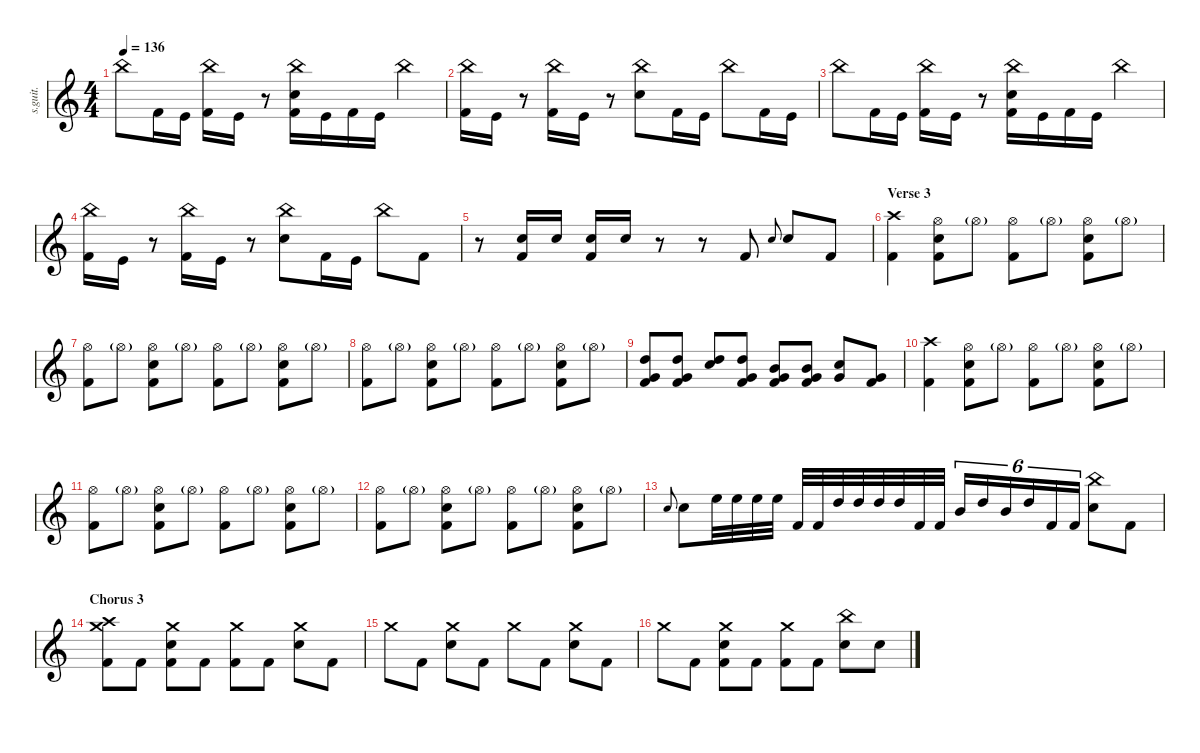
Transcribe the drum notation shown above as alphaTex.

\defaultSystemsLayout 4
\hideDynamics
\bracketExtendMode nobrackets
\track ("Joey Jordison" "s.guit.") {instrument percussion}
\staff {score}
\articulation defaults
\ts (4 4)
\tempo 136
\clef g2
\ks c "China (hit)".8{lyrics (0 "") lyrics (1 "") lyrics (2 "") lyrics (3 "") lyrics (4 "") dy fff} "Kick (hit) 2".16{lyrics (0 "") lyrics (1 "") lyrics (2 "") lyrics (3 "") lyrics (4 "")} "Kick (hit)".16{lyrics (0 "") lyrics (1 "") lyrics (2 "") lyrics (3 "") lyrics (4 "")}
("Kick (hit) 2" "China (hit)").16{lyrics (0 "") lyrics (1 "") lyrics (2 "") lyrics (3 "") lyrics (4 "")} "Kick (hit)".16{lyrics (0 "") lyrics (1 "") lyrics (2 "") lyrics (3 "") lyrics (4 "")} r.8 ("Snare (hit) 2" "Kick (hit) 2" "China (hit)").16{lyrics (0 "") lyrics (1 "") lyrics (2 "") lyrics (3 "") lyrics (4 "")} "Kick (hit)".16{lyrics (0 "") lyrics (1 "") lyrics (2 "") lyrics (3 "") lyrics (4 "")} "Kick (hit) 2".16{lyrics (0 "") lyrics (1 "") lyrics (2 "") lyrics (3 "") lyrics (4 "")} "Kick (hit)".16{lyrics (0 "") lyrics (1 "") lyrics (2 "") lyrics (3 "") lyrics (4 "")} "China (hit)".4{lyrics (0 "") lyrics (1 "") lyrics (2 "") lyrics (3 "") lyrics (4 "")} |
("Kick (hit) 2" "China (hit)").16{lyrics (0 "") lyrics (1 "") lyrics (2 "") lyrics (3 "") lyrics (4 "")} "Kick (hit)".16{lyrics (0 "") lyrics (1 "") lyrics (2 "") lyrics (3 "") lyrics (4 "")} r.8 ("Kick (hit) 2" "China (hit)").16{lyrics (0 "") lyrics (1 "") lyrics (2 "") lyrics (3 "") lyrics (4 "")} "Kick (hit)".16{lyrics (0 "") lyrics (1 "") lyrics (2 "") lyrics (3 "") lyrics (4 "")} r.8 ("Snare (hit) 2" "China (hit)").8{lyrics (0 "") lyrics (1 "") lyrics (2 "") lyrics (3 "") lyrics (4 "")} "Kick (hit) 2".16{lyrics (0 "") lyrics (1 "") lyrics (2 "") lyrics (3 "") lyrics (4 "")} "Kick (hit)".16{lyrics (0 "") lyrics (1 "") lyrics (2 "") lyrics (3 "") lyrics (4 "")} "China (hit)".8{lyrics (0 "") lyrics (1 "") lyrics (2 "") lyrics (3 "") lyrics (4 "")} "Kick (hit) 2".16{lyrics (0 "") lyrics (1 "") lyrics (2 "") lyrics (3 "") lyrics (4 "")} "Kick (hit)".16{lyrics (0 "") lyrics (1 "") lyrics (2 "") lyrics (3 "") lyrics (4 "")} |
"China (hit)".8{lyrics (0 "") lyrics (1 "") lyrics (2 "") lyrics (3 "") lyrics (4 "")} "Kick (hit) 2".16{lyrics (0 "") lyrics (1 "") lyrics (2 "") lyrics (3 "") lyrics (4 "")} "Kick (hit)".16{lyrics (0 "") lyrics (1 "") lyrics (2 "") lyrics (3 "") lyrics (4 "")} ("Kick (hit) 2" "China (hit)").16{lyrics (0 "") lyrics (1 "") lyrics (2 "") lyrics (3 "") lyrics (4 "")} "Kick (hit)".16{lyrics (0 "") lyrics (1 "") lyrics (2 "") lyrics (3 "") lyrics (4 "")} r.8 ("Snare (hit) 2" "Kick (hit) 2" "China (hit)").16{lyrics (0 "") lyrics (1 "") lyrics (2 "") lyrics (3 "") lyrics (4 "")} "Kick (hit)".16{lyrics (0 "") lyrics (1 "") lyrics (2 "") lyrics (3 "") lyrics (4 "")} "Kick (hit) 2".16{lyrics (0 "") lyrics (1 "") lyrics (2 "") lyrics (3 "") lyrics (4 "")} "Kick (hit)".16{lyrics (0 "") lyrics (1 "") lyrics (2 "") lyrics (3 "") lyrics (4 "")} "China (hit)".4{lyrics (0 "") lyrics (1 "") lyrics (2 "") lyrics (3 "") lyrics (4 "")} |
("Kick (hit) 2" "China (hit)").16{lyrics (0 "") lyrics (1 "") lyrics (2 "") lyrics (3 "") lyrics (4 "")} "Kick (hit)".16{lyrics (0 "") lyrics (1 "") lyrics (2 "") lyrics (3 "") lyrics (4 "")} r.8 ("Kick (hit) 2" "China (hit)").16{lyrics (0 "") lyrics (1 "") lyrics (2 "") lyrics (3 "") lyrics (4 "")} "Kick (hit)".16{lyrics (0 "") lyrics (1 "") lyrics (2 "") lyrics (3 "") lyrics (4 "")} r.8 ("Snare (hit) 2" "China (hit)").8{lyrics (0 "") lyrics (1 "") lyrics (2 "") lyrics (3 "") lyrics (4 "")} "Kick (hit) 2".16{lyrics (0 "") lyrics (1 "") lyrics (2 "") lyrics (3 "") lyrics (4 "")} "Kick (hit)".16{lyrics (0 "") lyrics (1 "") lyrics (2 "") lyrics (3 "") lyrics (4 "")} "China (hit)".8{lyrics (0 "") lyrics (1 "") lyrics (2 "") lyrics (3 "") lyrics (4 "")} "Kick (hit) 2".8{lyrics (0 "") lyrics (1 "") lyrics (2 "") lyrics (3 "") lyrics (4 "")} |
r.8 ("Snare (hit) 2" "Kick (hit) 2").16{lyrics (0 "") lyrics (1 "") lyrics (2 "") lyrics (3 "") lyrics (4 "")} "Snare (hit) 2".16{lyrics (0 "") lyrics (1 "") lyrics (2 "") lyrics (3 "") lyrics (4 "")} ("Snare (hit) 2" "Kick (hit) 2").16{lyrics (0 "") lyrics (1 "") lyrics (2 "") lyrics (3 "") lyrics (4 "")} "Snare (hit) 2".16{lyrics (0 "") lyrics (1 "") lyrics (2 "") lyrics (3 "") lyrics (4 "")} r.8 r.8 "Kick (hit) 2".8{lyrics (0 "") lyrics (1 "") lyrics (2 "") lyrics (3 "") lyrics (4 "")} "Snare (hit) 2".8{lyrics (0 "") lyrics (1 "") lyrics (2 "") lyrics (3 "") lyrics (4 "") gr onbeat} "Snare (hit) 2".8{lyrics (0 "") lyrics (1 "") lyrics (2 "") lyrics (3 "") lyrics (4 "")} "Kick (hit) 2".8{lyrics (0 "") lyrics (1 "") lyrics (2 "") lyrics (3 "") lyrics (4 "")} |
\section ("" "Verse 3")
("Crash high (hit)" "Kick (hit) 2").4{lyrics (0 "") lyrics (1 "") lyrics (2 "") lyrics (3 "") lyrics (4 "")} ("Hi-Hat (open)" "Kick (hit) 2" "Snare (hit) 2").8{lyrics (0 "") lyrics (1 "") lyrics (2 "") lyrics (3 "") lyrics (4 "")} "Hi-Hat (open)"{g}.8{lyrics (0 "") lyrics (1 "") lyrics (2 "") lyrics (3 "") lyrics (4 "")} ("Hi-Hat (open)" "Kick (hit) 2").8{lyrics (0 "") lyrics (1 "") lyrics (2 "") lyrics (3 "") lyrics (4 "")} "Hi-Hat (open)"{g}.8{lyrics (0 "") lyrics (1 "") lyrics (2 "") lyrics (3 "") lyrics (4 "")} ("Hi-Hat (open)" "Kick (hit) 2" "Snare (hit) 2").8{lyrics (0 "") lyrics (1 "") lyrics (2 "") lyrics (3 "") lyrics (4 "")} "Hi-Hat (open)"{g}.8{lyrics (0 "") lyrics (1 "") lyrics (2 "") lyrics (3 "") lyrics (4 "")} |
("Hi-Hat (open)" "Kick (hit) 2").8{lyrics (0 "") lyrics (1 "") lyrics (2 "") lyrics (3 "") lyrics (4 "")} "Hi-Hat (open)"{g}.8{lyrics (0 "") lyrics (1 "") lyrics (2 "") lyrics (3 "") lyrics (4 "")} ("Hi-Hat (open)" "Kick (hit) 2" "Snare (hit) 2").8{lyrics (0 "") lyrics (1 "") lyrics (2 "") lyrics (3 "") lyrics (4 "")} "Hi-Hat (open)"{g}.8{lyrics (0 "") lyrics (1 "") lyrics (2 "") lyrics (3 "") lyrics (4 "")} ("Hi-Hat (open)" "Kick (hit) 2").8{lyrics (0 "") lyrics (1 "") lyrics (2 "") lyrics (3 "") lyrics (4 "")} "Hi-Hat (open)"{g}.8{lyrics (0 "") lyrics (1 "") lyrics (2 "") lyrics (3 "") lyrics (4 "")} ("Hi-Hat (open)" "Kick (hit) 2" "Snare (hit) 2").8{lyrics (0 "") lyrics (1 "") lyrics (2 "") lyrics (3 "") lyrics (4 "")} "Hi-Hat (open)"{g}.8{lyrics (0 "") lyrics (1 "") lyrics (2 "") lyrics (3 "") lyrics (4 "")} |
("Hi-Hat (open)" "Kick (hit) 2").8{lyrics (0 "") lyrics (1 "") lyrics (2 "") lyrics (3 "") lyrics (4 "")} "Hi-Hat (open)"{g}.8{lyrics (0 "") lyrics (1 "") lyrics (2 "") lyrics (3 "") lyrics (4 "")} ("Hi-Hat (open)" "Kick (hit) 2" "Snare (hit) 2").8{lyrics (0 "") lyrics (1 "") lyrics (2 "") lyrics (3 "") lyrics (4 "")} "Hi-Hat (open)"{g}.8{lyrics (0 "") lyrics (1 "") lyrics (2 "") lyrics (3 "") lyrics (4 "")} ("Hi-Hat (open)" "Kick (hit) 2").8{lyrics (0 "") lyrics (1 "") lyrics (2 "") lyrics (3 "") lyrics (4 "")} "Hi-Hat (open)"{g}.8{lyrics (0 "") lyrics (1 "") lyrics (2 "") lyrics (3 "") lyrics (4 "")} ("Hi-Hat (open)" "Kick (hit) 2" "Snare (hit) 2").8{lyrics (0 "") lyrics (1 "") lyrics (2 "") lyrics (3 "") lyrics (4 "")} "Hi-Hat (open)"{g}.8{lyrics (0 "") lyrics (1 "") lyrics (2 "") lyrics (3 "") lyrics (4 "")} |
("Kick (hit) 2" "High Tom (hit)" "Very Low Tom (hit)").8{lyrics (0 "") lyrics (1 "") lyrics (2 "") lyrics (3 "") lyrics (4 "")} ("Kick (hit) 2" "High Tom (hit)" "Very Low Tom (hit)").8{lyrics (0 "") lyrics (1 "") lyrics (2 "") lyrics (3 "") lyrics (4 "")} ("Snare (hit) 2" "High Tom (hit)").8{lyrics (0 "") lyrics (1 "") lyrics (2 "") lyrics (3 "") lyrics (4 "")} ("Kick (hit) 2" "High Tom (hit)" "Very Low Tom (hit)").8{lyrics (0 "") lyrics (1 "") lyrics (2 "") lyrics (3 "") lyrics (4 "")} ("Kick (hit) 2" "Mid Tom (hit)" "Very Low Tom (hit)").8{lyrics (0 "") lyrics (1 "") lyrics (2 "") lyrics (3 "") lyrics (4 "")} ("Kick (hit) 2" "Mid Tom (hit)" "Very Low Tom (hit)").8{lyrics (0 "") lyrics (1 "") lyrics (2 "") lyrics (3 "") lyrics (4 "")} ("Snare (hit) 2" "Very Low Tom (hit)").8{lyrics (0 "") lyrics (1 "") lyrics (2 "") lyrics (3 "") lyrics (4 "")} ("Kick (hit) 2" "Very Low Tom (hit)").8{lyrics (0 "") lyrics (1 "") lyrics (2 "") lyrics (3 "") lyrics (4 "")} |
("Crash high (hit)" "Kick (hit) 2").4{lyrics (0 "") lyrics (1 "") lyrics (2 "") lyrics (3 "") lyrics (4 "")} ("Hi-Hat (open)" "Kick (hit) 2" "Snare (hit) 2").8{lyrics (0 "") lyrics (1 "") lyrics (2 "") lyrics (3 "") lyrics (4 "")} "Hi-Hat (open)"{g}.8{lyrics (0 "") lyrics (1 "") lyrics (2 "") lyrics (3 "") lyrics (4 "")} ("Hi-Hat (open)" "Kick (hit) 2").8{lyrics (0 "") lyrics (1 "") lyrics (2 "") lyrics (3 "") lyrics (4 "")} "Hi-Hat (open)"{g}.8{lyrics (0 "") lyrics (1 "") lyrics (2 "") lyrics (3 "") lyrics (4 "")} ("Hi-Hat (open)" "Kick (hit) 2" "Snare (hit) 2").8{lyrics (0 "") lyrics (1 "") lyrics (2 "") lyrics (3 "") lyrics (4 "")} "Hi-Hat (open)"{g}.8{lyrics (0 "") lyrics (1 "") lyrics (2 "") lyrics (3 "") lyrics (4 "")} |
("Hi-Hat (open)" "Kick (hit) 2").8{lyrics (0 "") lyrics (1 "") lyrics (2 "") lyrics (3 "") lyrics (4 "")} "Hi-Hat (open)"{g}.8{lyrics (0 "") lyrics (1 "") lyrics (2 "") lyrics (3 "") lyrics (4 "")} ("Hi-Hat (open)" "Kick (hit) 2" "Snare (hit) 2").8{lyrics (0 "") lyrics (1 "") lyrics (2 "") lyrics (3 "") lyrics (4 "")} "Hi-Hat (open)"{g}.8{lyrics (0 "") lyrics (1 "") lyrics (2 "") lyrics (3 "") lyrics (4 "")} ("Hi-Hat (open)" "Kick (hit) 2").8{lyrics (0 "") lyrics (1 "") lyrics (2 "") lyrics (3 "") lyrics (4 "")} "Hi-Hat (open)"{g}.8{lyrics (0 "") lyrics (1 "") lyrics (2 "") lyrics (3 "") lyrics (4 "")} ("Hi-Hat (open)" "Kick (hit) 2" "Snare (hit) 2").8{lyrics (0 "") lyrics (1 "") lyrics (2 "") lyrics (3 "") lyrics (4 "")} "Hi-Hat (open)"{g}.8{lyrics (0 "") lyrics (1 "") lyrics (2 "") lyrics (3 "") lyrics (4 "")} |
("Hi-Hat (open)" "Kick (hit) 2").8{lyrics (0 "") lyrics (1 "") lyrics (2 "") lyrics (3 "") lyrics (4 "")} "Hi-Hat (open)"{g}.8{lyrics (0 "") lyrics (1 "") lyrics (2 "") lyrics (3 "") lyrics (4 "")} ("Hi-Hat (open)" "Kick (hit) 2" "Snare (hit) 2").8{lyrics (0 "") lyrics (1 "") lyrics (2 "") lyrics (3 "") lyrics (4 "")} "Hi-Hat (open)"{g}.8{lyrics (0 "") lyrics (1 "") lyrics (2 "") lyrics (3 "") lyrics (4 "")} ("Hi-Hat (open)" "Kick (hit) 2").8{lyrics (0 "") lyrics (1 "") lyrics (2 "") lyrics (3 "") lyrics (4 "")} "Hi-Hat (open)"{g}.8{lyrics (0 "") lyrics (1 "") lyrics (2 "") lyrics (3 "") lyrics (4 "")} ("Hi-Hat (open)" "Kick (hit) 2" "Snare (hit) 2").8{lyrics (0 "") lyrics (1 "") lyrics (2 "") lyrics (3 "") lyrics (4 "")} "Hi-Hat (open)"{g}.8{lyrics (0 "") lyrics (1 "") lyrics (2 "") lyrics (3 "") lyrics (4 "")} |
"Snare (hit) 2".8{lyrics (0 "") lyrics (1 "") lyrics (2 "") lyrics (3 "") lyrics (4 "") gr onbeat} "Snare (hit) 2".8{lyrics (0 "") lyrics (1 "") lyrics (2 "") lyrics (3 "") lyrics (4 "")} "High Floor Tom (hit)".32{lyrics (0 "") lyrics (1 "") lyrics (2 "") lyrics (3 "") lyrics (4 "")} "High Floor Tom (hit)".32{lyrics (0 "") lyrics (1 "") lyrics (2 "") lyrics (3 "") lyrics (4 "")} "High Floor Tom (hit)".32{lyrics (0 "") lyrics (1 "") lyrics (2 "") lyrics (3 "") lyrics (4 "")} "High Floor Tom (hit)".32{lyrics (0 "") lyrics (1 "") lyrics (2 "") lyrics (3 "") lyrics (4 "")} "Kick (hit) 2".32{lyrics (0 "") lyrics (1 "") lyrics (2 "") lyrics (3 "") lyrics (4 "")} "Kick (hit) 2".32{lyrics (0 "") lyrics (1 "") lyrics (2 "") lyrics (3 "") lyrics (4 "")} "High Tom (hit)".32{lyrics (0 "") lyrics (1 "") lyrics (2 "") lyrics (3 "") lyrics (4 "")} "High Tom (hit)".32{lyrics (0 "") lyrics (1 "") lyrics (2 "") lyrics (3 "") lyrics (4 "")} "High Tom (hit)".32{lyrics (0 "") lyrics (1 "") lyrics (2 "") lyrics (3 "") lyrics (4 "")} "High Tom (hit)".32{lyrics (0 "") lyrics (1 "") lyrics (2 "") lyrics (3 "") lyrics (4 "")} "Kick (hit) 2".32{lyrics (0 "") lyrics (1 "") lyrics (2 "") lyrics (3 "") lyrics (4 "")} "Kick (hit) 2".32{lyrics (0 "") lyrics (1 "") lyrics (2 "") lyrics (3 "") lyrics (4 "")} "Mid Tom (hit)".16{tu (6 4) lyrics (0 "") lyrics (1 "") lyrics (2 "") lyrics (3 "") lyrics (4 "")} "High Tom (hit)".16{tu (6 4) lyrics (0 "") lyrics (1 "") lyrics (2 "") lyrics (3 "") lyrics (4 "")} "Mid Tom (hit)".16{tu (6 4) lyrics (0 "") lyrics (1 "") lyrics (2 "") lyrics (3 "") lyrics (4 "")} "High Tom (hit)".16{tu (6 4) lyrics (0 "") lyrics (1 "") lyrics (2 "") lyrics (3 "") lyrics (4 "")} "Kick (hit) 2".16{tu (6 4) lyrics (0 "") lyrics (1 "") lyrics (2 "") lyrics (3 "") lyrics (4 "")} "Kick (hit) 2".16{tu (6 4) lyrics (0 "") lyrics (1 "") lyrics (2 "") lyrics (3 "") lyrics (4 "")} ("Snare (hit) 2" "China (hit)").8{lyrics (0 "") lyrics (1 "") lyrics (2 "") lyrics (3 "") lyrics (4 "")} "Kick (hit) 2".8{lyrics (0 "") lyrics (1 "") lyrics (2 "") lyrics (3 "") lyrics (4 "")} |
\section ("" "Chorus 3")
("Kick (hit) 2" "Crash high (hit)" "Crash medium (hit)").8{lyrics (0 "") lyrics (1 "") lyrics (2 "") lyrics (3 "") lyrics (4 "")} "Kick (hit) 2".8{lyrics (0 "") lyrics (1 "") lyrics (2 "") lyrics (3 "") lyrics (4 "")} ("Snare (hit) 2" "Kick (hit) 2" "Crash medium (hit)").8{lyrics (0 "") lyrics (1 "") lyrics (2 "") lyrics (3 "") lyrics (4 "")} "Kick (hit) 2".8{lyrics (0 "") lyrics (1 "") lyrics (2 "") lyrics (3 "") lyrics (4 "")} ("Kick (hit) 2" "Crash medium (hit)").8{lyrics (0 "") lyrics (1 "") lyrics (2 "") lyrics (3 "") lyrics (4 "")} "Kick (hit) 2".8{lyrics (0 "") lyrics (1 "") lyrics (2 "") lyrics (3 "") lyrics (4 "")} ("Snare (hit) 2" "Crash medium (hit)").8{lyrics (0 "") lyrics (1 "") lyrics (2 "") lyrics (3 "") lyrics (4 "")} "Kick (hit) 2".8{lyrics (0 "") lyrics (1 "") lyrics (2 "") lyrics (3 "") lyrics (4 "")} |
"Crash medium (hit)".8{lyrics (0 "") lyrics (1 "") lyrics (2 "") lyrics (3 "") lyrics (4 "")} "Kick (hit) 2".8{lyrics (0 "") lyrics (1 "") lyrics (2 "") lyrics (3 "") lyrics (4 "")} ("Snare (hit) 2" "Crash medium (hit)").8{lyrics (0 "") lyrics (1 "") lyrics (2 "") lyrics (3 "") lyrics (4 "")} "Kick (hit) 2".8{lyrics (0 "") lyrics (1 "") lyrics (2 "") lyrics (3 "") lyrics (4 "")} "Crash medium (hit)".8{lyrics (0 "") lyrics (1 "") lyrics (2 "") lyrics (3 "") lyrics (4 "")} "Kick (hit) 2".8{lyrics (0 "") lyrics (1 "") lyrics (2 "") lyrics (3 "") lyrics (4 "")} ("Snare (hit) 2" "Crash medium (hit)").8{lyrics (0 "") lyrics (1 "") lyrics (2 "") lyrics (3 "") lyrics (4 "")} "Kick (hit) 2".8{lyrics (0 "") lyrics (1 "") lyrics (2 "") lyrics (3 "") lyrics (4 "")} |
"Crash medium (hit)".8{lyrics (0 "") lyrics (1 "") lyrics (2 "") lyrics (3 "") lyrics (4 "")} "Kick (hit) 2".8{lyrics (0 "") lyrics (1 "") lyrics (2 "") lyrics (3 "") lyrics (4 "")} ("Snare (hit) 2" "Kick (hit) 2" "Crash medium (hit)").8{lyrics (0 "") lyrics (1 "") lyrics (2 "") lyrics (3 "") lyrics (4 "")} "Kick (hit) 2".8{lyrics (0 "") lyrics (1 "") lyrics (2 "") lyrics (3 "") lyrics (4 "")} ("Kick (hit) 2" "Crash medium (hit)").8{lyrics (0 "") lyrics (1 "") lyrics (2 "") lyrics (3 "") lyrics (4 "")} "Kick (hit) 2".8{lyrics (0 "") lyrics (1 "") lyrics (2 "") lyrics (3 "") lyrics (4 "")} ("Snare (hit) 2" "China (hit)").8{lyrics (0 "") lyrics (1 "") lyrics (2 "") lyrics (3 "") lyrics (4 "")} "Snare (hit) 2".8{lyrics (0 "") lyrics (1 "") lyrics (2 "") lyrics (3 "") lyrics (4 "")}
